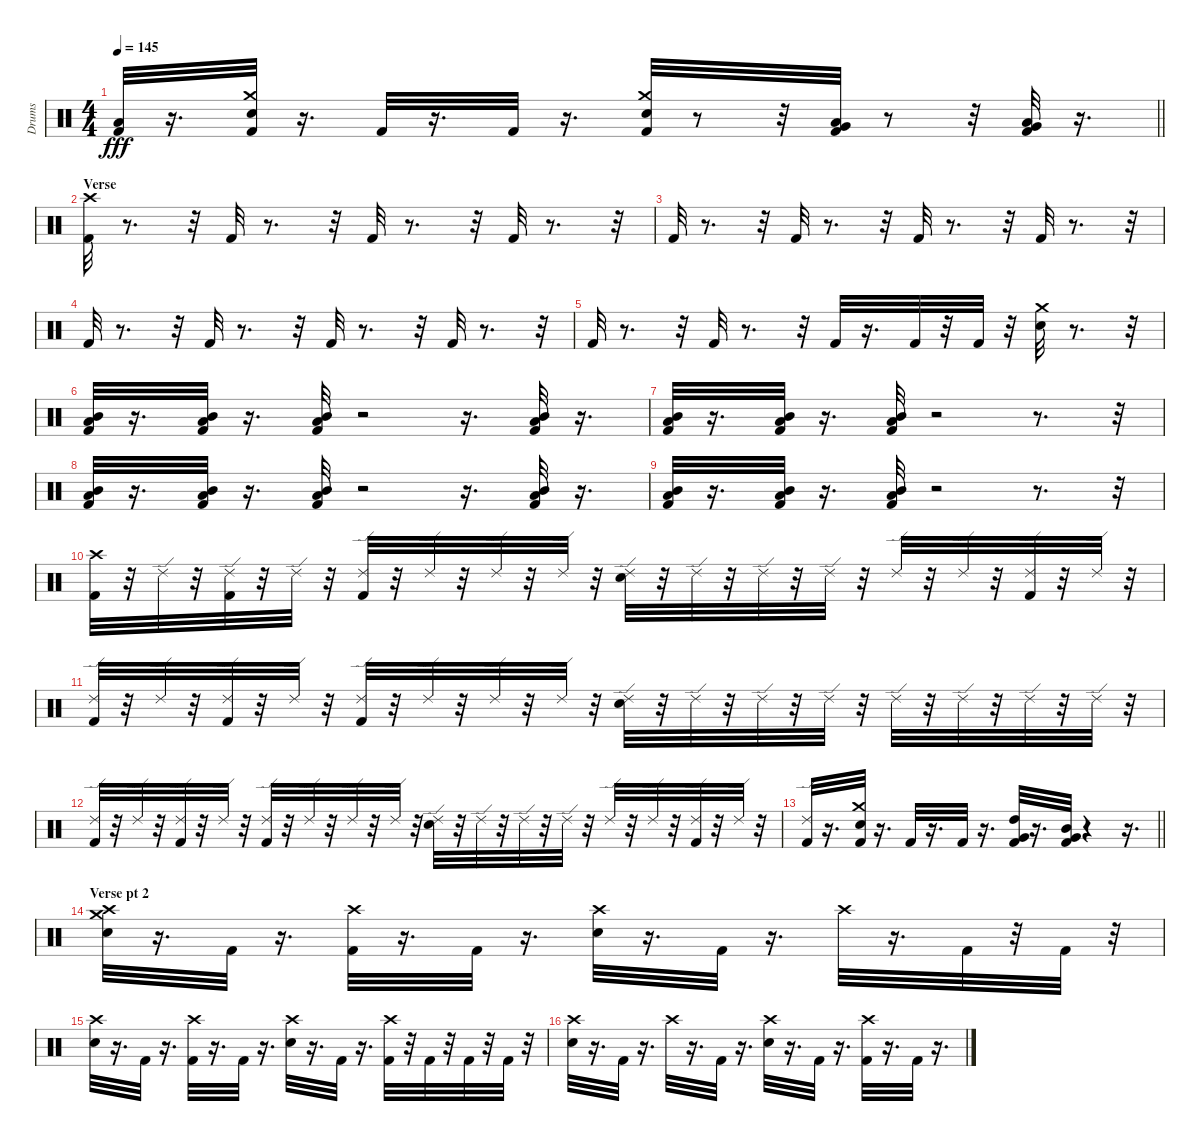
\track ("Drums" "Drums") {instrument percussion}
\staff {score}
\articulation defaults
\ts (4 4)
\tempo 145
\clef neutral
\barLineRight lightlight
\ks c
("Low Floor Tom (hit)" "Kick (hit) 2").32{dy fff} r.16{d} ("Crash medium (hit)" "Snare (hit) 2" "Kick (hit) 2").32 r.16{d} "Kick (hit) 2".32 r.16{d} "Kick (hit) 2".32 r.16{d} ("Snare (hit) 2" "Crash medium (hit)" "Kick (hit) 2").32 r.8 r.32 ("Low Tom (hit)" "Very Low Tom (hit)" "Kick (hit) 2").32 r.8 r.32 ("Low Tom (hit)" "Very Low Tom (hit)" "Kick (hit) 2").32 r.16{d} |
\section ("" "Verse")
("Crash high (hit)" "Kick (hit) 2").32 r.8{d} r.32 "Kick (hit) 2".32 r.8{d} r.32 "Kick (hit) 2".32 r.8{d} r.32 "Kick (hit) 2".32 r.8{d} r.32 |
"Kick (hit) 2".32 r.8{d} r.32 "Kick (hit) 2".32 r.8{d} r.32 "Kick (hit) 2".32 r.8{d} r.32 "Kick (hit) 2".32 r.8{d} r.32 |
"Kick (hit) 2".32 r.8{d} r.32 "Kick (hit) 2".32 r.8{d} r.32 "Kick (hit) 2".32 r.8{d} r.32 "Kick (hit) 2".32 r.8{d} r.32 |
"Kick (hit) 2".32 r.8{d} r.32 "Kick (hit) 2".32 r.8{d} r.32 "Kick (hit) 2".32 r.16{d} "Kick (hit) 2".32 r.32 "Kick (hit) 2".32 r.32 ("Crash medium (hit)" "Snare (hit) 2").32 r.8{d} r.32 |
("Kick (hit) 2" "Mid Tom (hit)" "Low Floor Tom (hit)").32 r.16{d} ("Kick (hit) 2" "Mid Tom (hit)" "Low Floor Tom (hit)").32 r.16{d} ("Kick (hit) 2" "Mid Tom (hit)" "Low Floor Tom (hit)").32 r.2 r.16{d} ("Kick (hit) 2" "Mid Tom (hit)" "Low Floor Tom (hit)").32 r.16{d} |
("Kick (hit) 2" "Mid Tom (hit)" "Low Floor Tom (hit)").32 r.16{d} ("Kick (hit) 2" "Mid Tom (hit)" "Low Floor Tom (hit)").32 r.16{d} ("Kick (hit) 2" "Mid Tom (hit)" "Low Floor Tom (hit)").32 r.2 r.8{d} r.32 |
("Kick (hit) 2" "Mid Tom (hit)" "Low Floor Tom (hit)").32 r.16{d} ("Kick (hit) 2" "Mid Tom (hit)" "Low Floor Tom (hit)").32 r.16{d} ("Kick (hit) 2" "Mid Tom (hit)" "Low Floor Tom (hit)").32 r.2 r.16{d} ("Low Floor Tom (hit)" "Kick (hit) 2" "Mid Tom (hit)").32 r.16{d} |
("Kick (hit) 2" "Low Floor Tom (hit)" "Mid Tom (hit)").32 r.16{d} ("Kick (hit) 2" "Low Floor Tom (hit)" "Mid Tom (hit)").32 r.16{d} ("Kick (hit) 2" "Low Floor Tom (hit)" "Mid Tom (hit)").32 r.2 r.8{d} r.32 |
("Crash high (hit)" "Kick (hit) 2").32 r.32 "Ride (edge) 2".32 r.32 ("Ride (edge) 2" "Kick (hit) 2").32 r.32 "Ride (edge) 2".32 r.32 ("Ride (edge) 2" "Kick (hit) 2").32 r.32 "Ride (edge) 2".32 r.32 "Ride (edge) 2".32 r.32 "Ride (edge) 2".32 r.32 ("Ride (edge) 2" "Snare (hit) 2").32 r.32 "Ride (edge) 2".32 r.32 "Ride (edge) 2".32 r.32 "Ride (edge) 2".32 r.32 "Ride (edge) 2".32 r.32 "Ride (edge) 2".32 r.32 ("Ride (edge) 2" "Kick (hit) 2").32 r.32 "Ride (edge) 2".32 r.32 |
("Ride (edge) 2" "Kick (hit) 2").32 r.32 "Ride (edge) 2".32 r.32 ("Ride (edge) 2" "Kick (hit) 2").32 r.32 "Ride (edge) 2".32 r.32 ("Ride (edge) 2" "Kick (hit) 2").32 r.32 "Ride (edge) 2".32 r.32 "Ride (edge) 2".32 r.32 "Ride (edge) 2".32 r.32 ("Ride (edge) 2" "Snare (hit) 2").32 r.32 "Ride (edge) 2".32 r.32 "Ride (edge) 2".32 r.32 "Ride (edge) 2".32 r.32 "Ride (edge) 2".32 r.32 "Ride (edge) 2".32 r.32 "Ride (edge) 2".32 r.32 "Ride (edge) 2".32 r.32 |
("Ride (edge) 2" "Kick (hit) 2").32 r.32 "Ride (edge) 2".32 r.32 ("Ride (edge) 2" "Kick (hit) 2").32 r.32 "Ride (edge) 2".32 r.32 ("Ride (edge) 2" "Kick (hit) 2").32 r.32 "Ride (edge) 2".32 r.32 "Ride (edge) 2".32 r.32 "Ride (edge) 2".32 r.32 ("Ride (edge) 2" "Snare (hit) 2").32 r.32 "Ride (edge) 2".32 r.32 "Ride (edge) 2".32 r.32 "Ride (edge) 2".32 r.32 "Ride (edge) 2".32 r.32 "Ride (edge) 2".32 r.32 ("Kick (hit) 2" "Ride (edge) 2").32 r.32 "Ride (edge) 2".32 r.32 |
\barLineRight lightlight
("Ride (edge) 2" "Kick (hit) 2").32 r.16{d} ("Crash medium (hit)" "Snare (hit) 2" "Kick (hit) 2").32 r.16{d} "Kick (hit) 2".32 r.16{d} "Kick (hit) 2".32 r.16{d} ("Kick (hit) 2" "High Tom (hit)" "Very Low Tom (hit)").32 r.16{d} ("Mid Tom (hit)" "Very Low Tom (hit)" "Kick (hit) 2").32 r.4 r.16{d} |
\section ("" "Verse pt 2")
("Snare (hit) 2" "Crash medium (hit)" "Crash high (hit)").32 r.16{d} "Kick (hit) 2".32 r.16{d} ("Kick (hit) 2" "Crash high (hit)").32 r.16{d} "Kick (hit) 2".32 r.16{d} ("Snare (hit) 2" "Crash high (hit)").32 r.16{d} "Kick (hit) 2".32 r.16{d} "Crash high (hit)".32 r.16{d} "Kick (hit) 2".32 r.32 "Kick (hit) 2".32 r.32 |
("Snare (hit) 2" "Crash high (hit)").32 r.16{d} "Kick (hit) 2".32 r.16{d} ("Kick (hit) 2" "Crash high (hit)").32 r.16{d} "Kick (hit) 2".32 r.16{d} ("Snare (hit) 2" "Crash high (hit)").32 r.16{d} "Kick (hit) 2".32 r.16{d} ("Kick (hit) 2" "Crash high (hit)").32 r.32 "Kick (hit) 2".32 r.32 "Kick (hit) 2".32 r.32 "Kick (hit) 2".32 r.32 |
("Snare (hit) 2" "Crash high (hit)").32 r.16{d} "Kick (hit) 2".32 r.16{d} "Crash high (hit)".32 r.16{d} "Kick (hit) 2".32 r.16{d} ("Snare (hit) 2" "Crash high (hit)").32 r.16{d} "Kick (hit) 2".32 r.16{d} ("Kick (hit) 2" "Crash high (hit)").32 r.16{d} "Kick (hit) 2".32 r.16{d}
